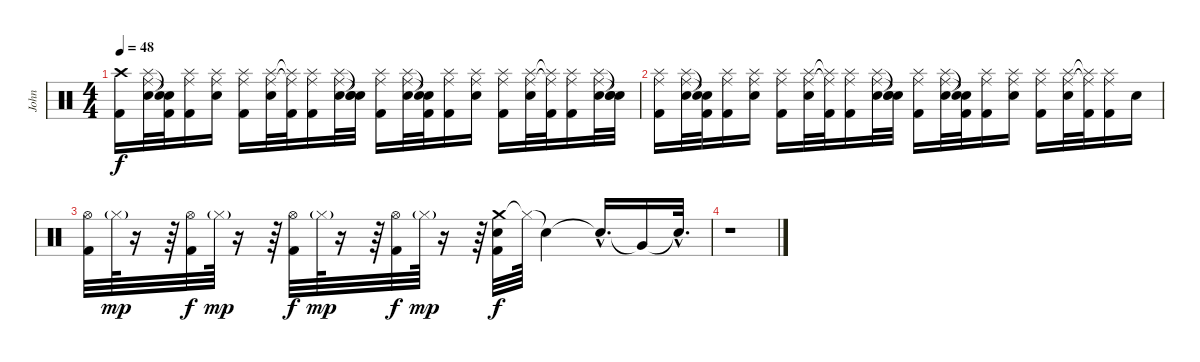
\track ("John" "John") {instrument percussion}
\staff {score}
\articulation defaults
\ts (4 4)
\tempo 48
\clef neutral
\ks c
("Crash high (hit)" "Kick (hit) 2").16{dy f} ("Splash (hit)" "Ride (middle)" "Electric Snare (hit)").32 ("Snare (hit)"{t} "Snare (hit)"{t} "Kick (hit) 2").32 ("Splash (hit)" "Ride (middle)" "Kick (hit) 2").16 ("Splash (hit)" "Ride (middle)" "Electric Snare (hit)").16 ("Splash (hit)" "Ride (middle)" "Kick (hit) 2").16 ("Splash (hit)" "Ride (middle)" "Electric Snare (hit)").32 ("Splash (hit)"{t} "Ride (middle)"{t} "Kick (hit) 2").32 ("Splash (hit)" "Ride (middle)" "Kick (hit) 2").16 ("Splash (hit)" "Ride (middle)" "Electric Snare (hit)").32 ("Snare (hit)"{t} "Snare (hit)"{t} "Electric Snare (hit)").32 ("Splash (hit)" "Ride (middle)" "Kick (hit) 2").16 ("Splash (hit)" "Ride (middle)" "Electric Snare (hit)").32 ("Snare (hit)"{t} "Snare (hit)"{t} "Kick (hit) 2").32 ("Splash (hit)" "Ride (middle)" "Kick (hit) 2").16 ("Splash (hit)" "Ride (middle)" "Electric Snare (hit)").16 ("Splash (hit)" "Ride (middle)" "Kick (hit) 2").16 ("Splash (hit)" "Ride (middle)" "Electric Snare (hit)").32 ("Splash (hit)"{t} "Ride (middle)"{t} "Kick (hit) 2").32 ("Splash (hit)" "Ride (middle)" "Kick (hit) 2").16 ("Splash (hit)" "Ride (middle)" "Electric Snare (hit)").32 ("Snare (hit)"{t} "Snare (hit)"{t} "Electric Snare (hit)").32 |
("Splash (hit)" "Ride (middle)" "Kick (hit) 2").16 ("Splash (hit)" "Ride (middle)" "Electric Snare (hit)").32 ("Snare (hit)"{t} "Snare (hit)"{t} "Kick (hit) 2").32 ("Splash (hit)" "Ride (middle)" "Kick (hit) 2").16 ("Splash (hit)" "Ride (middle)" "Electric Snare (hit)").16 ("Splash (hit)" "Ride (middle)" "Kick (hit) 2").16 ("Splash (hit)" "Ride (middle)" "Electric Snare (hit)").32 ("Splash (hit)"{t} "Ride (middle)"{t} "Kick (hit) 2").32 ("Splash (hit)" "Ride (middle)" "Kick (hit) 2").16 ("Splash (hit)" "Ride (middle)" "Electric Snare (hit)").32 ("Snare (hit)"{t} "Snare (hit)"{t} "Electric Snare (hit)").32 ("Splash (hit)" "Ride (middle)" "Kick (hit) 2").16 ("Splash (hit)" "Ride (middle)" "Electric Snare (hit)").32 ("Snare (hit)"{t} "Snare (hit)"{t} "Kick (hit) 2").32 ("Splash (hit)" "Ride (middle)" "Kick (hit) 2").16 ("Splash (hit)" "Ride (middle)" "Electric Snare (hit)").16 ("Splash (hit)" "Ride (middle)" "Kick (hit) 2").16 ("Splash (hit)" "Ride (middle)" "Electric Snare (hit)").32 ("Splash (hit)"{t} "Ride (middle)"{t} "Kick (hit) 2").32 ("Splash (hit)" "Ride (middle)" "Kick (hit) 2").16 "Electric Snare (hit)".16 |
("Hi-Hat (open)" "Kick (hit) 2").32 "Hi-Hat (closed)"{g}.64{dy mp} r.16 r.64 ("Hi-Hat (open)" "Kick (hit) 2").32{dy f} "Hi-Hat (closed)"{g}.64{dy mp} r.16 r.64 ("Hi-Hat (open)" "Kick (hit) 2").32{dy f} "Hi-Hat (closed)"{g}.64{dy mp} r.16 r.64 ("Hi-Hat (open)" "Kick (hit) 2").32{dy f} "Hi-Hat (closed)"{g}.64{dy mp} r.16 r.64 ("Crash medium (hit)" "Electric Snare (hit)" "Kick (hit) 2").32{dy f} "Hi-Hat (closed)"{t}.64 "Snare (hit)"{t}.4 "Snare (hit)"{hac t}.16{d} "Very Low Tom (hit)"{t}.16 "Snare (hit)"{hac t}.32{d} |
r.1
